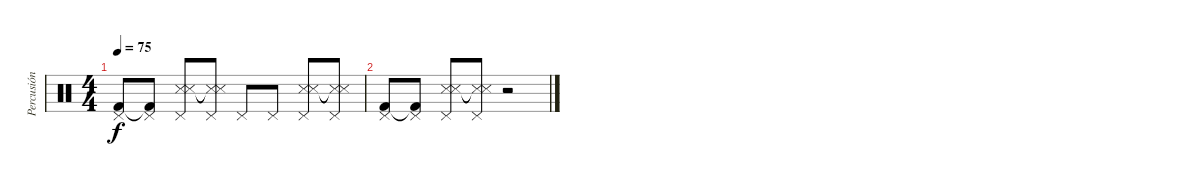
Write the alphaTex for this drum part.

\track ("Percusión" "Percusión") {instrument percussion}
\staff {score}
\articulation defaults
\ts (4 4)
\tempo 75
\clef neutral
\ks c
("Kick (hit) 2" "Pedal Hi-Hat (hit)").8{dy f} ("Kick (hit) 2"{t} "Pedal Hi-Hat (hit)").8 ("Metronome (hit)" "Snare (side stick) 3" "Pedal Hi-Hat (hit)").8 ("Metronome (hit)"{t} "Snare (side stick) 3"{t} "Pedal Hi-Hat (hit)").8 "Pedal Hi-Hat (hit)".8 "Pedal Hi-Hat (hit)".8 ("Metronome (hit)" "Snare (side stick) 3" "Pedal Hi-Hat (hit)").8 ("Metronome (hit)"{t} "Snare (side stick) 3"{t} "Pedal Hi-Hat (hit)").8 |
("Kick (hit) 2" "Pedal Hi-Hat (hit)").8 ("Kick (hit) 2"{t} "Pedal Hi-Hat (hit)").8 ("Metronome (hit)" "Snare (side stick) 3" "Pedal Hi-Hat (hit)").8 ("Metronome (hit)"{t} "Snare (side stick) 3"{t} "Pedal Hi-Hat (hit)").8 r.2
